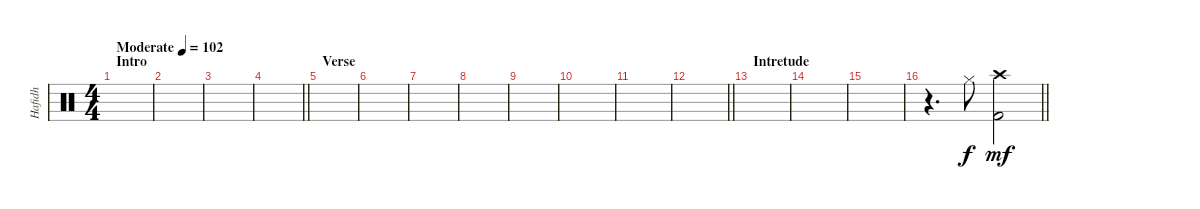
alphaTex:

\track ("Hafidh" "Hafidh") {instrument percussion}
\staff {score}
\articulation defaults
\ts (4 4)
\section ("" "Intro")
\tempo (102 "Moderate")
\clef neutral
\ks c
|
|
|
\barLineRight lightlight
|
\section ("" "Verse")
|
|
|
|
|
|
|
\barLineRight lightlight
|
\section ("" "Intretude")
|
|
|
\barLineRight lightlight
r.4{d} "Hi-Hat (closed)".8 ("Crash high (hit)" "Kick (hit) 2").2{dy mf}
